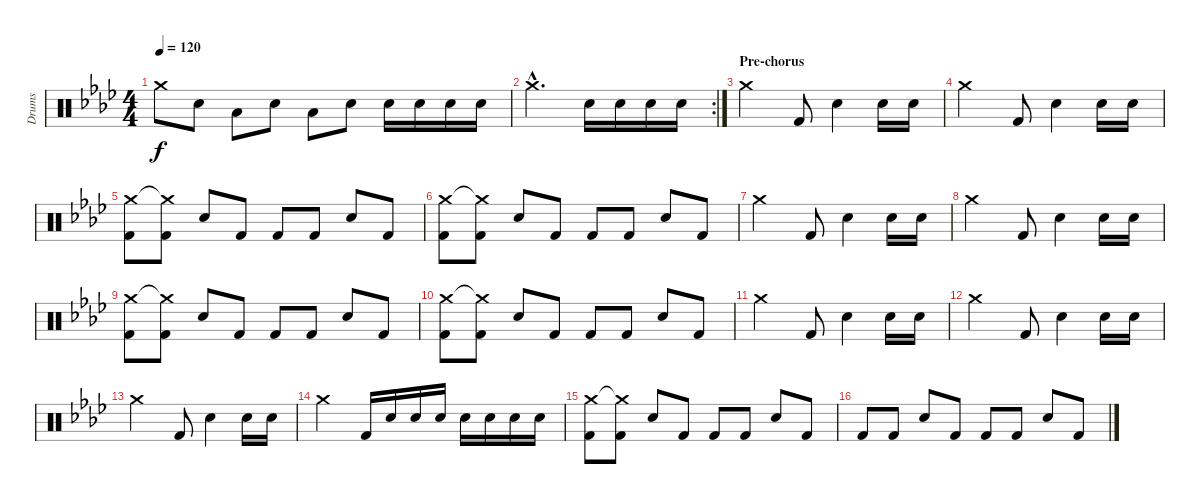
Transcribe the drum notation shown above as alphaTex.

\track ("Drums" "Drums") {instrument percussion}
\staff {score}
\articulation defaults
\ts (4 4)
\tempo 120
\clef neutral
\ks ab "Crash medium (hit)".8{dy f} "Electric Snare (hit)".8 "Low Tom (hit)".8 "Electric Snare (hit)".8 "Low Tom (hit)".8 "Electric Snare (hit)".8 "Electric Snare (hit)".16 "Electric Snare (hit)".16 "Electric Snare (hit)".16 "Electric Snare (hit)".16
|
\rc 2 "Crash medium (hit)"{hac}.2{d} "Electric Snare (hit)".16 "Electric Snare (hit)".16 "Electric Snare (hit)".16 "Electric Snare (hit)".16
|
\section ("" "Pre-chorus")
"Crash medium (hit)".2 "Kick (hit) 2".8 "Snare (hit) 2".4 "Electric Snare (hit)".16 "Electric Snare (hit)".16 |
"Crash medium (hit)".2 "Kick (hit) 2".8 "Snare (hit) 2".4 "Electric Snare (hit)".16 "Electric Snare (hit)".16 |
("Crash medium (hit)" "Kick (hit) 2").8 ("Crash medium (hit)"{t} "Kick (hit) 2").8 "Snare (hit) 2".8 "Kick (hit) 2".8 "Kick (hit) 2".8 "Kick (hit) 2".8 "Snare (hit) 2".8 "Kick (hit) 2".8 |
("Crash medium (hit)" "Kick (hit) 2").8 ("Crash medium (hit)"{t} "Kick (hit) 2").8 "Snare (hit) 2".8 "Kick (hit) 2".8 "Kick (hit) 2".8 "Kick (hit) 2".8 "Snare (hit) 2".8 "Kick (hit) 2".8 |
"Crash medium (hit)".2 "Kick (hit) 2".8 "Snare (hit) 2".4 "Electric Snare (hit)".16 "Electric Snare (hit)".16 |
"Crash medium (hit)".2 "Kick (hit) 2".8 "Snare (hit) 2".4 "Electric Snare (hit)".16 "Electric Snare (hit)".16 |
("Crash medium (hit)" "Kick (hit) 2").8 ("Crash medium (hit)"{t} "Kick (hit) 2").8 "Snare (hit) 2".8 "Kick (hit) 2".8 "Kick (hit) 2".8 "Kick (hit) 2".8 "Snare (hit) 2".8 "Kick (hit) 2".8 |
("Crash medium (hit)" "Kick (hit) 2").8 ("Crash medium (hit)"{t} "Kick (hit) 2").8 "Snare (hit) 2".8 "Kick (hit) 2".8 "Kick (hit) 2".8 "Kick (hit) 2".8 "Snare (hit) 2".8 "Kick (hit) 2".8 |
"Crash medium (hit)".2 "Kick (hit) 2".8 "Snare (hit) 2".4 "Electric Snare (hit)".16 "Electric Snare (hit)".16 |
"Crash medium (hit)".2 "Kick (hit) 2".8 "Snare (hit) 2".4 "Electric Snare (hit)".16 "Electric Snare (hit)".16 |
"Crash medium (hit)".2 "Kick (hit) 2".8 "Snare (hit) 2".4 "Electric Snare (hit)".16 "Electric Snare (hit)".16 |
"Crash medium (hit)".2 "Kick (hit) 2".16 "Electric Snare (hit)".16 "Electric Snare (hit)".16 "Electric Snare (hit)".16 "Electric Snare (hit)".16 "Electric Snare (hit)".16 "Electric Snare (hit)".16 "Electric Snare (hit)".16 |
("Crash medium (hit)" "Kick (hit) 2").8 ("Crash medium (hit)"{t} "Kick (hit) 2").8 "Snare (hit) 2".8 "Kick (hit) 2".8 "Kick (hit) 2".8 "Kick (hit) 2".8 "Snare (hit) 2".8 "Kick (hit) 2".8 |
"Kick (hit) 2".8 "Kick (hit) 2".8 "Snare (hit) 2".8 "Kick (hit) 2".8 "Kick (hit) 2".8 "Kick (hit) 2".8 "Snare (hit) 2".8 "Kick (hit) 2".8
